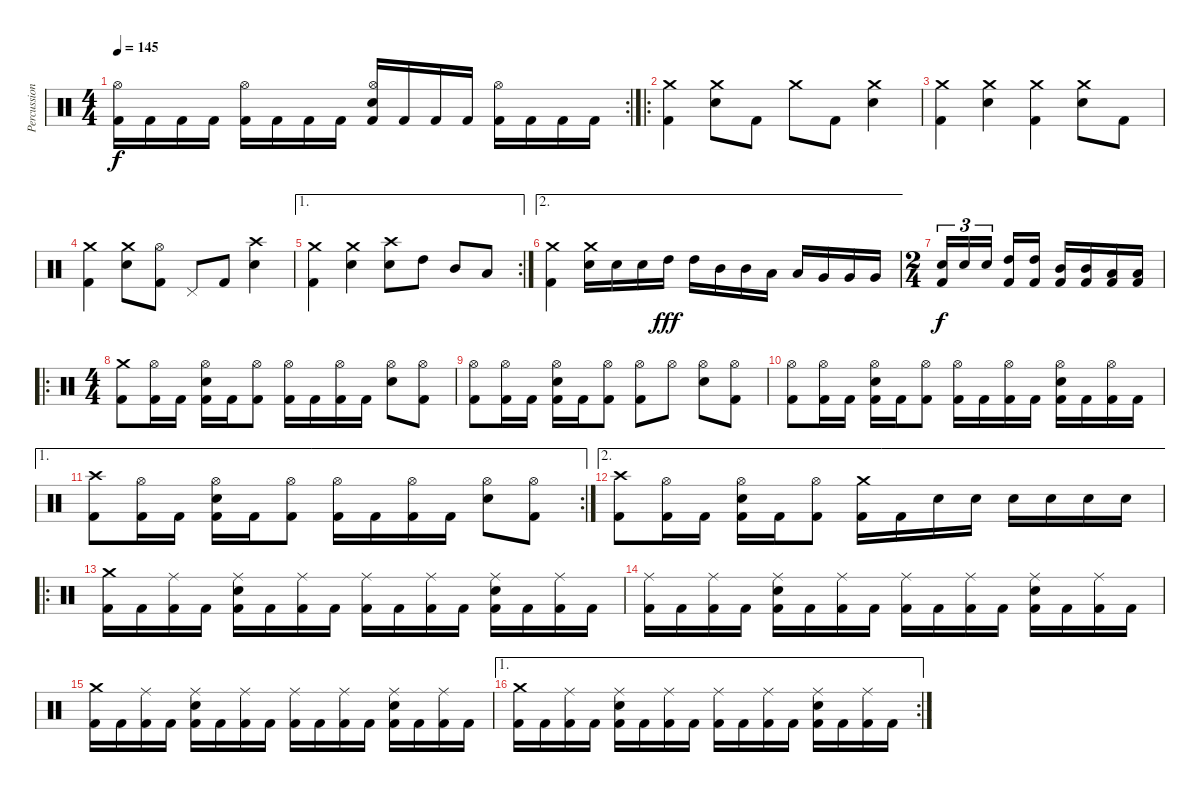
\track ("Percussion" "Percussion") {instrument percussion}
\staff {score}
\articulation defaults
\rc 2
\ts (4 4)
\tempo 145
\clef neutral
\ks c
("Kick (hit) 2" "Hi-Hat (open)").16{dy f} "Kick (hit) 2".16 "Kick (hit) 2".16 "Kick (hit) 2".16 ("Kick (hit) 2" "Hi-Hat (open)").16 "Kick (hit) 2".16 "Kick (hit) 2".16 "Kick (hit) 2".16 ("Kick (hit) 2" "Electric Snare (hit)" "Hi-Hat (open)").16 "Kick (hit) 2".16 "Kick (hit) 2".16 "Kick (hit) 2".16 ("Kick (hit) 2" "Hi-Hat (open)").16 "Kick (hit) 2".16 "Kick (hit) 2".16 "Kick (hit) 2".16 |
\ro
("Kick (hit) 2" "Crash medium (hit)").4 ("Electric Snare (hit)" "Crash medium (hit)").8 "Kick (hit) 2".8 "Crash medium (hit)".8 "Kick (hit) 2".8 ("Electric Snare (hit)" "Crash medium (hit)").4 |
("Kick (hit) 2" "Crash medium (hit)").4 ("Electric Snare (hit)" "Crash medium (hit)").4 ("Kick (hit) 2" "Crash medium (hit)").4 ("Electric Snare (hit)" "Crash medium (hit)").8 "Kick (hit) 2".8 |
("Kick (hit) 2" "Crash medium (hit)").4 ("Electric Snare (hit)" "Crash medium (hit)").8 ("Kick (hit) 2" "Hi-Hat (open)").8 "Pedal Hi-Hat (hit)".8 "Kick (hit) 2".8 ("Electric Snare (hit)" "Crash high (hit)").4 |
\ae 1
\rc 2
("Kick (hit) 2" "Crash medium (hit)").4 ("Electric Snare (hit)" "Crash medium (hit)").4 ("Electric Snare (hit)" "Crash high (hit)").8 "High Tom (hit)".8 "Mid Tom (hit)".8 "Low Tom (hit)".8 |
\ae 2
("Kick (hit) 2" "Crash medium (hit)").4 ("Electric Snare (hit)" "Crash medium (hit)").16 "Electric Snare (hit)".16 "Electric Snare (hit)".16 "High Tom (hit)".16{dy fff} "High Tom (hit)".16 "Mid Tom (hit)".16 "Mid Tom (hit)".16 "Low Tom (hit)".16 "Low Tom (hit)".16 "Very Low Tom (hit)".16 "Very Low Tom (hit)".16 "Very Low Tom (hit)".16 |
\ts (2 4)
("Kick (hit) 2" "Electric Snare (hit)").16{tu (3 2) dy f} "Electric Snare (hit)".16{tu (3 2)} "Electric Snare (hit)".16{tu (3 2)} ("Kick (hit) 2" "High Tom (hit)").16 ("Kick (hit) 2" "High Tom (hit)").16 ("Kick (hit) 2" "Mid Tom (hit)").16 ("Kick (hit) 2" "Mid Tom (hit)").16 ("Kick (hit) 2" "Low Tom (hit)").16 ("Kick (hit) 2" "Low Tom (hit)").16 |
\ro
\ts (4 4)
("Kick (hit) 2" "Crash medium (hit)").8 ("Kick (hit) 2" "Hi-Hat (open)").16 "Kick (hit) 2".16 ("Kick (hit) 2" "Electric Snare (hit)" "Hi-Hat (open)").16 "Kick (hit) 2".16 ("Kick (hit) 2" "Hi-Hat (open)").8 ("Kick (hit) 2" "Hi-Hat (open)").16 "Kick (hit) 2".16 ("Kick (hit) 2" "Hi-Hat (open)").16 "Kick (hit) 2".16 ("Electric Snare (hit)" "Hi-Hat (open)").8 ("Kick (hit) 2" "Hi-Hat (open)").8 |
("Kick (hit) 2" "Hi-Hat (open)").8 ("Kick (hit) 2" "Hi-Hat (open)").16 "Kick (hit) 2".16 ("Kick (hit) 2" "Electric Snare (hit)" "Hi-Hat (open)").16 "Kick (hit) 2".16 ("Kick (hit) 2" "Hi-Hat (open)").8 ("Kick (hit) 2" "Hi-Hat (open)").8 "Hi-Hat (open)".8 ("Electric Snare (hit)" "Hi-Hat (open)").8 ("Kick (hit) 2" "Hi-Hat (open)").8 |
("Kick (hit) 2" "Hi-Hat (open)").8 ("Kick (hit) 2" "Hi-Hat (open)").16 "Kick (hit) 2".16 ("Kick (hit) 2" "Electric Snare (hit)" "Hi-Hat (open)").16 "Kick (hit) 2".16 ("Kick (hit) 2" "Hi-Hat (open)").8 ("Kick (hit) 2" "Hi-Hat (open)").16 "Kick (hit) 2".16 ("Kick (hit) 2" "Hi-Hat (open)").16 "Kick (hit) 2".16 ("Kick (hit) 2" "Electric Snare (hit)" "Hi-Hat (open)").16 "Kick (hit) 2".16 ("Kick (hit) 2" "Hi-Hat (open)").16 "Kick (hit) 2".16 |
\ae 1
\rc 2
("Kick (hit) 2" "Crash high (hit)").8 ("Kick (hit) 2" "Hi-Hat (open)").16 "Kick (hit) 2".16 ("Kick (hit) 2" "Electric Snare (hit)" "Hi-Hat (open)").16 "Kick (hit) 2".16 ("Kick (hit) 2" "Hi-Hat (open)").8 ("Kick (hit) 2" "Hi-Hat (open)").16 "Kick (hit) 2".16 ("Kick (hit) 2" "Hi-Hat (open)").16 "Kick (hit) 2".16 ("Electric Snare (hit)" "Hi-Hat (open)").8 ("Kick (hit) 2" "Hi-Hat (open)").8 |
\ae 2
("Kick (hit) 2" "Crash high (hit)").8 ("Kick (hit) 2" "Hi-Hat (open)").16 "Kick (hit) 2".16 ("Kick (hit) 2" "Electric Snare (hit)" "Hi-Hat (open)").16 "Kick (hit) 2".16 ("Kick (hit) 2" "Hi-Hat (open)").8 ("Kick (hit) 2" "Crash medium (hit)").16 "Kick (hit) 2".16 "Electric Snare (hit)".16 "Electric Snare (hit)".16 "Electric Snare (hit)".16 "Electric Snare (hit)".16 "Electric Snare (hit)".16 "Electric Snare (hit)".16 |
\ro
("Kick (hit) 2" "Crash medium (hit)").16 "Kick (hit) 2".16 ("Kick (hit) 2" "Ride (middle)").16 "Kick (hit) 2".16 ("Kick (hit) 2" "Electric Snare (hit)" "Ride (middle)").16 "Kick (hit) 2".16 ("Kick (hit) 2" "Ride (middle)").16 "Kick (hit) 2".16 ("Kick (hit) 2" "Ride (middle)").16 "Kick (hit) 2".16 ("Kick (hit) 2" "Ride (middle)").16 "Kick (hit) 2".16 ("Kick (hit) 2" "Electric Snare (hit)" "Ride (middle)").16 "Kick (hit) 2".16 ("Kick (hit) 2" "Ride (middle)").16 "Kick (hit) 2".16 |
("Kick (hit) 2" "Ride (middle)").16 "Kick (hit) 2".16 ("Kick (hit) 2" "Ride (middle)").16 "Kick (hit) 2".16 ("Kick (hit) 2" "Electric Snare (hit)" "Ride (middle)").16 "Kick (hit) 2".16 ("Kick (hit) 2" "Ride (middle)").16 "Kick (hit) 2".16 ("Kick (hit) 2" "Ride (middle)").16 "Kick (hit) 2".16 ("Kick (hit) 2" "Ride (middle)").16 "Kick (hit) 2".16 ("Kick (hit) 2" "Electric Snare (hit)" "Ride (middle)").16 "Kick (hit) 2".16 ("Kick (hit) 2" "Ride (middle)").16 "Kick (hit) 2".16 |
("Kick (hit) 2" "Crash medium (hit)").16 "Kick (hit) 2".16 ("Kick (hit) 2" "Ride (middle)").16 "Kick (hit) 2".16 ("Kick (hit) 2" "Electric Snare (hit)" "Ride (middle)").16 "Kick (hit) 2".16 ("Kick (hit) 2" "Ride (middle)").16 "Kick (hit) 2".16 ("Kick (hit) 2" "Ride (middle)").16 "Kick (hit) 2".16 ("Kick (hit) 2" "Ride (middle)").16 "Kick (hit) 2".16 ("Kick (hit) 2" "Electric Snare (hit)" "Ride (middle)").16 "Kick (hit) 2".16 ("Kick (hit) 2" "Ride (middle)").16 "Kick (hit) 2".16 |
\ae 1
\rc 2
("Kick (hit) 2" "Crash medium (hit)").16 "Kick (hit) 2".16 ("Kick (hit) 2" "Ride (middle)").16 "Kick (hit) 2".16 ("Kick (hit) 2" "Electric Snare (hit)" "Ride (middle)").16 "Kick (hit) 2".16 ("Kick (hit) 2" "Ride (middle)").16 "Kick (hit) 2".16 ("Kick (hit) 2" "Ride (middle)").16 "Kick (hit) 2".16 ("Kick (hit) 2" "Ride (middle)").16 "Kick (hit) 2".16 ("Kick (hit) 2" "Electric Snare (hit)" "Ride (middle)").16 "Kick (hit) 2".16 ("Kick (hit) 2" "Ride (middle)").16 "Kick (hit) 2".16
